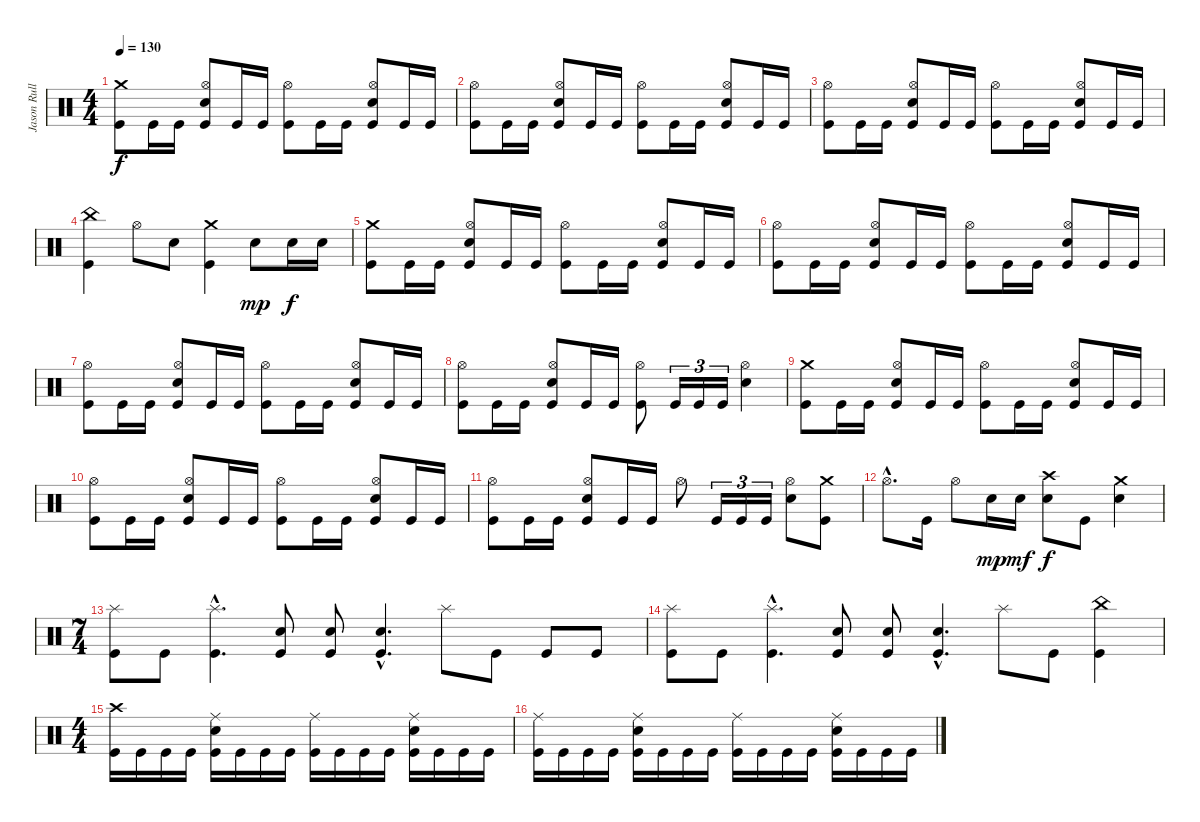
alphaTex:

\track ("Jason Rullo - Batterie" "Jason Rull") {instrument percussion}
\staff {score}
\articulation defaults
\ts (4 4)
\tempo 130
\clef neutral
\ks c
("Crash medium (hit)" "Kick (hit)").8{dy f} "Kick (hit)".16 "Kick (hit)".16 ("Hi-Hat (open)" "Snare (hit) 2" "Kick (hit)").8 "Kick (hit)".16 "Kick (hit)".16 ("Hi-Hat (open)" "Kick (hit)").8 "Kick (hit)".16 "Kick (hit)".16 ("Hi-Hat (open)" "Snare (hit) 2" "Kick (hit)").8 "Kick (hit)".16 "Kick (hit)".16 |
("Hi-Hat (open)" "Kick (hit)").8 "Kick (hit)".16 "Kick (hit)".16 ("Hi-Hat (open)" "Snare (hit) 2" "Kick (hit)").8 "Kick (hit)".16 "Kick (hit)".16 ("Hi-Hat (open)" "Kick (hit)").8 "Kick (hit)".16 "Kick (hit)".16 ("Hi-Hat (open)" "Snare (hit) 2" "Kick (hit)").8 "Kick (hit)".16 "Kick (hit)".16 |
("Hi-Hat (open)" "Kick (hit)").8 "Kick (hit)".16 "Kick (hit)".16 ("Hi-Hat (open)" "Snare (hit) 2" "Kick (hit)").8 "Kick (hit)".16 "Kick (hit)".16 ("Hi-Hat (open)" "Kick (hit)").8 "Kick (hit)".16 "Kick (hit)".16 ("Hi-Hat (open)" "Snare (hit) 2" "Kick (hit)").8 "Kick (hit)".16 "Kick (hit)".16 |
("China (hit)" "Kick (hit)").4 "Hi-Hat (open)".8 "Snare (hit) 2".8 ("Crash medium (hit)" "Kick (hit)").4 "Snare (hit) 2".8{dy mp} "Snare (hit) 2".16{dy f} "Snare (hit) 2".16 |
("Crash medium (hit)" "Kick (hit)").8 "Kick (hit)".16 "Kick (hit)".16 ("Hi-Hat (open)" "Snare (hit) 2" "Kick (hit)").8 "Kick (hit)".16 "Kick (hit)".16 ("Hi-Hat (open)" "Kick (hit)").8 "Kick (hit)".16 "Kick (hit)".16 ("Hi-Hat (open)" "Snare (hit) 2" "Kick (hit)").8 "Kick (hit)".16 "Kick (hit)".16 |
("Hi-Hat (open)" "Kick (hit)").8 "Kick (hit)".16 "Kick (hit)".16 ("Hi-Hat (open)" "Snare (hit) 2" "Kick (hit)").8 "Kick (hit)".16 "Kick (hit)".16 ("Hi-Hat (open)" "Kick (hit)").8 "Kick (hit)".16 "Kick (hit)".16 ("Hi-Hat (open)" "Snare (hit) 2" "Kick (hit)").8 "Kick (hit)".16 "Kick (hit)".16 |
("Hi-Hat (open)" "Kick (hit)").8 "Kick (hit)".16 "Kick (hit)".16 ("Hi-Hat (open)" "Snare (hit) 2" "Kick (hit)").8 "Kick (hit)".16 "Kick (hit)".16 ("Hi-Hat (open)" "Kick (hit)").8 "Kick (hit)".16 "Kick (hit)".16 ("Hi-Hat (open)" "Snare (hit) 2" "Kick (hit)").8 "Kick (hit)".16 "Kick (hit)".16 |
("Hi-Hat (open)" "Kick (hit)").8 "Kick (hit)".16 "Kick (hit)".16 ("Hi-Hat (open)" "Snare (hit) 2" "Kick (hit)").8 "Kick (hit)".16 "Kick (hit)".16 ("Hi-Hat (open)" "Kick (hit)").8 "Kick (hit)".16{tu (3 2)} "Kick (hit)".16{tu (3 2)} "Kick (hit)".16{tu (3 2)} ("Hi-Hat (open)" "Snare (hit) 2").4 |
("Crash medium (hit)" "Kick (hit)").8 "Kick (hit)".16 "Kick (hit)".16 ("Hi-Hat (open)" "Snare (hit) 2" "Kick (hit)").8 "Kick (hit)".16 "Kick (hit)".16 ("Hi-Hat (open)" "Kick (hit)").8 "Kick (hit)".16 "Kick (hit)".16 ("Hi-Hat (open)" "Snare (hit) 2" "Kick (hit)").8 "Kick (hit)".16 "Kick (hit)".16 |
("Hi-Hat (open)" "Kick (hit)").8 "Kick (hit)".16 "Kick (hit)".16 ("Hi-Hat (open)" "Snare (hit) 2" "Kick (hit)").8 "Kick (hit)".16 "Kick (hit)".16 ("Hi-Hat (open)" "Kick (hit)").8 "Kick (hit)".16 "Kick (hit)".16 ("Hi-Hat (open)" "Snare (hit) 2" "Kick (hit)").8 "Kick (hit)".16 "Kick (hit)".16 |
("Hi-Hat (open)" "Kick (hit)").8 "Kick (hit)".16 "Kick (hit)".16 ("Hi-Hat (open)" "Snare (hit) 2" "Kick (hit)").8 "Kick (hit)".16 "Kick (hit)".16 "Hi-Hat (open)".8 "Kick (hit)".16{tu (3 2)} "Kick (hit)".16{tu (3 2)} "Kick (hit)".16{tu (3 2)} ("Hi-Hat (open)" "Snare (hit) 2").8 ("Crash medium (hit)" "Kick (hit)").8 |
"Hi-Hat (open)"{hac}.8{d} "Kick (hit)".16 "Hi-Hat (open)".8 "Snare (hit) 2".16{dy mp} "Snare (hit) 2".16{dy mf} ("Crash high (hit)" "Snare (hit) 2").8{dy f} "Kick (hit)".8 ("Crash medium (hit)" "Snare (hit) 2").4 |
\ts (7 4)
("Splash (hit)" "Kick (hit)").8 "Kick (hit)".8 ("Splash (hit)"{hac} "Kick (hit)"{hac}).4{d} ("Snare (hit) 2" "Kick (hit)").8 ("Snare (hit) 2" "Kick (hit)").8 ("Snare (hit) 2"{hac} "Kick (hit)"{hac}).4{d} "Splash (hit)".8 "Kick (hit)".8 "Kick (hit)".8 "Kick (hit)".8 |
("Splash (hit)" "Kick (hit)").8 "Kick (hit)".8 ("Splash (hit)"{hac} "Kick (hit)"{hac}).4{d} ("Snare (hit) 2" "Kick (hit)").8 ("Snare (hit) 2" "Kick (hit)").8 ("Snare (hit) 2"{hac} "Kick (hit)"{hac}).4{d} "Splash (hit)".8 "Kick (hit)".8 ("China (hit)" "Kick (hit)").4 |
\ts (4 4)
("Crash high (hit)" "Kick (hit)").16 "Kick (hit)".16 "Kick (hit)".16 "Kick (hit)".16 ("Ride (middle)" "Snare (hit) 2" "Kick (hit)").16 "Kick (hit)".16 "Kick (hit)".16 "Kick (hit)".16 ("Ride (middle)" "Kick (hit)").16 "Kick (hit)".16 "Kick (hit)".16 "Kick (hit)".16 ("Ride (middle)" "Snare (hit) 2" "Kick (hit)").16 "Kick (hit)".16 "Kick (hit)".16 "Kick (hit)".16 |
("Ride (middle)" "Kick (hit)").16 "Kick (hit)".16 "Kick (hit)".16 "Kick (hit)".16 ("Ride (middle)" "Snare (hit) 2" "Kick (hit)").16 "Kick (hit)".16 "Kick (hit)".16 "Kick (hit)".16 ("Ride (middle)" "Kick (hit)").16 "Kick (hit)".16 "Kick (hit)".16 "Kick (hit)".16 ("Ride (middle)" "Snare (hit) 2" "Kick (hit)").16 "Kick (hit)".16 "Kick (hit)".16 "Kick (hit)".16
